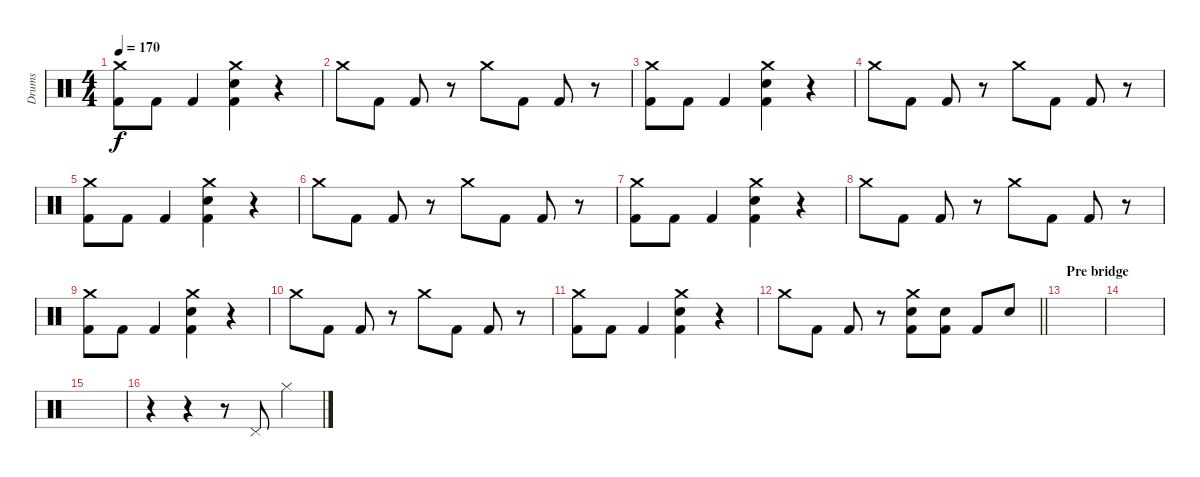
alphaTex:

\track ("Drums" "Drums") {instrument percussion}
\staff {score}
\articulation defaults
\ts (4 4)
\tempo 170
\clef neutral
\ks c
("Crash medium (hit)" "Kick (hit) 2").8{dy f} "Kick (hit) 2".8 "Kick (hit) 2".4 ("Crash medium (hit)" "Electric Snare (hit)" "Kick (hit) 2").4 r.4 |
"Crash medium (hit)".8 "Kick (hit) 2".8 "Kick (hit) 2".8 r.8 "Crash medium (hit)".8 "Kick (hit) 2".8 "Kick (hit) 2".8 r.8 |
("Crash medium (hit)" "Kick (hit) 2").8 "Kick (hit) 2".8 "Kick (hit) 2".4 ("Crash medium (hit)" "Electric Snare (hit)" "Kick (hit) 2").4 r.4 |
"Crash medium (hit)".8 "Kick (hit) 2".8 "Kick (hit) 2".8 r.8 "Crash medium (hit)".8 "Kick (hit) 2".8 "Kick (hit) 2".8 r.8 |
("Crash medium (hit)" "Kick (hit) 2").8 "Kick (hit) 2".8 "Kick (hit) 2".4 ("Crash medium (hit)" "Electric Snare (hit)" "Kick (hit) 2").4 r.4 |
"Crash medium (hit)".8 "Kick (hit) 2".8 "Kick (hit) 2".8 r.8 "Crash medium (hit)".8 "Kick (hit) 2".8 "Kick (hit) 2".8 r.8 |
("Crash medium (hit)" "Kick (hit) 2").8 "Kick (hit) 2".8 "Kick (hit) 2".4 ("Crash medium (hit)" "Electric Snare (hit)" "Kick (hit) 2").4 r.4 |
"Crash medium (hit)".8 "Kick (hit) 2".8 "Kick (hit) 2".8 r.8 "Crash medium (hit)".8 "Kick (hit) 2".8 "Kick (hit) 2".8 r.8 |
("Crash medium (hit)" "Kick (hit) 2").8 "Kick (hit) 2".8 "Kick (hit) 2".4 ("Crash medium (hit)" "Electric Snare (hit)" "Kick (hit) 2").4 r.4 |
"Crash medium (hit)".8 "Kick (hit) 2".8 "Kick (hit) 2".8 r.8 "Crash medium (hit)".8 "Kick (hit) 2".8 "Kick (hit) 2".8 r.8 |
("Crash medium (hit)" "Kick (hit) 2").8 "Kick (hit) 2".8 "Kick (hit) 2".4 ("Crash medium (hit)" "Electric Snare (hit)" "Kick (hit) 2").4 r.4 |
\barLineRight lightlight "Crash medium (hit)".8 "Kick (hit) 2".8 "Kick (hit) 2".8
r.8 ("Crash medium (hit)" "Electric Snare (hit)" "Kick (hit) 2").8 ("Electric Snare (hit)" "Kick (hit) 2").8 "Kick (hit) 2".8 "Snare (hit) 2".8 |
\section ("" "Pre bridge")
|
|
|
r.4 r.4 r.8 "Pedal Hi-Hat (hit)".8 "Hi-Hat (closed)".4
